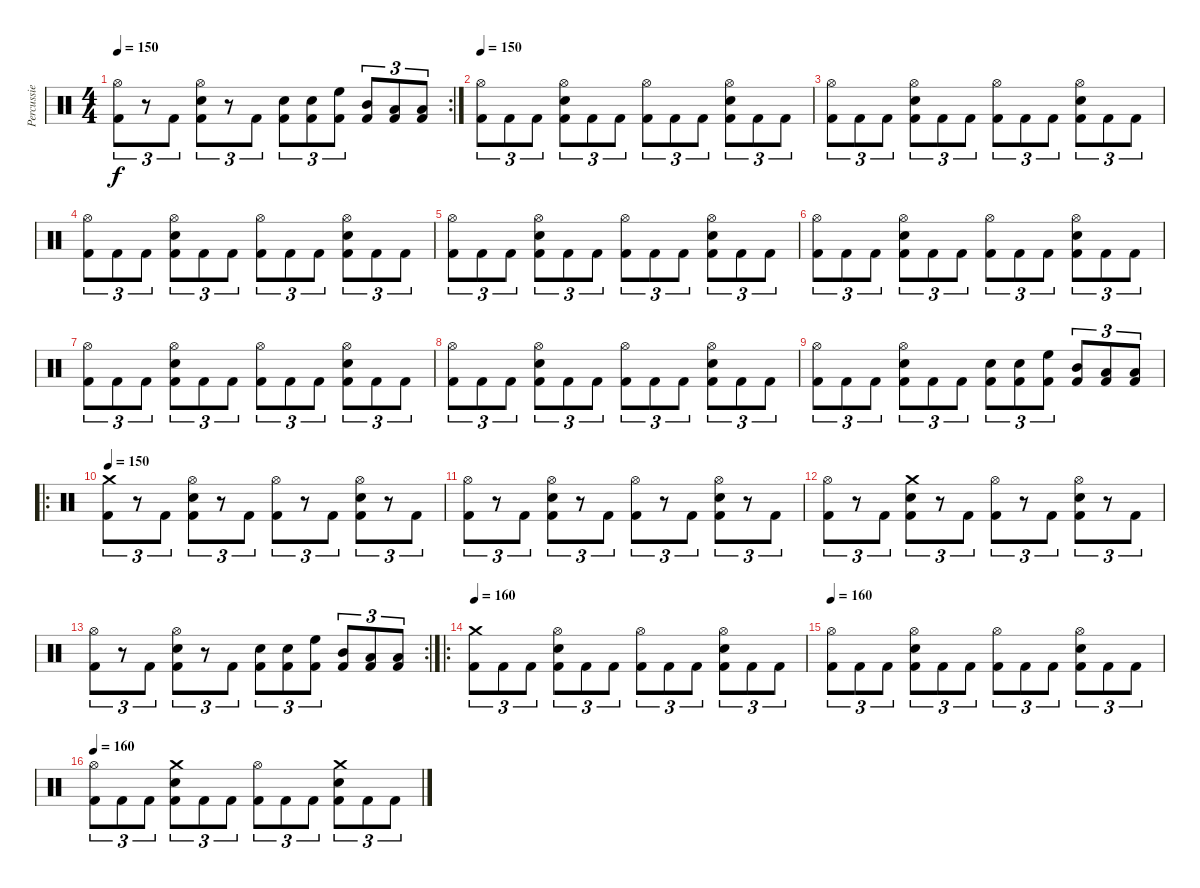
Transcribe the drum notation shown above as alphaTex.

\track ("Percussie" "Percussie") {instrument percussion}
\staff {score}
\articulation defaults
\rc 2
\ts (4 4)
\tempo 150
\clef neutral
\ks c
("Hi-Hat (open)" "Kick (hit) 2").8{tu (3 2) dy f} r.8{tu (3 2)} "Kick (hit) 2".8{tu (3 2)} ("Hi-Hat (open)" "Snare (hit) 2" "Kick (hit) 2").8{tu (3 2)} r.8{tu (3 2)} "Kick (hit) 2".8{tu (3 2)} ("Snare (hit) 2" "Kick (hit) 2").8{tu (3 2)} ("Snare (hit) 2" "Kick (hit) 2").8{tu (3 2)} ("High Floor Tom (hit)" "Kick (hit) 2").8{tu (3 2)} ("Mid Tom (hit)" "Kick (hit) 2").8{tu (3 2)} ("Low Tom (hit)" "Kick (hit) 2").8{tu (3 2)} ("Low Floor Tom (hit)" "Kick (hit) 2").8{tu (3 2)} |
\tempo 150
("Hi-Hat (open)" "Kick (hit) 2").8{tu (3 2)} "Kick (hit) 2".8{tu (3 2)} "Kick (hit) 2".8{tu (3 2)} ("Hi-Hat (open)" "Snare (hit) 2" "Kick (hit) 2").8{tu (3 2)} "Kick (hit) 2".8{tu (3 2)} "Kick (hit) 2".8{tu (3 2)} ("Hi-Hat (open)" "Kick (hit) 2").8{tu (3 2)} "Kick (hit) 2".8{tu (3 2)} "Kick (hit) 2".8{tu (3 2)} ("Hi-Hat (open)" "Snare (hit) 2" "Kick (hit) 2").8{tu (3 2)} "Kick (hit) 2".8{tu (3 2)} "Kick (hit) 2".8{tu (3 2)} |
("Hi-Hat (open)" "Kick (hit) 2").8{tu (3 2)} "Kick (hit) 2".8{tu (3 2)} "Kick (hit) 2".8{tu (3 2)} ("Hi-Hat (open)" "Snare (hit) 2" "Kick (hit) 2").8{tu (3 2)} "Kick (hit) 2".8{tu (3 2)} "Kick (hit) 2".8{tu (3 2)} ("Hi-Hat (open)" "Kick (hit) 2").8{tu (3 2)} "Kick (hit) 2".8{tu (3 2)} "Kick (hit) 2".8{tu (3 2)} ("Hi-Hat (open)" "Snare (hit) 2" "Kick (hit) 2").8{tu (3 2)} "Kick (hit) 2".8{tu (3 2)} "Kick (hit) 2".8{tu (3 2)} |
("Hi-Hat (open)" "Kick (hit) 2").8{tu (3 2)} "Kick (hit) 2".8{tu (3 2)} "Kick (hit) 2".8{tu (3 2)} ("Hi-Hat (open)" "Snare (hit) 2" "Kick (hit) 2").8{tu (3 2)} "Kick (hit) 2".8{tu (3 2)} "Kick (hit) 2".8{tu (3 2)} ("Hi-Hat (open)" "Kick (hit) 2").8{tu (3 2)} "Kick (hit) 2".8{tu (3 2)} "Kick (hit) 2".8{tu (3 2)} ("Hi-Hat (open)" "Snare (hit) 2" "Kick (hit) 2").8{tu (3 2)} "Kick (hit) 2".8{tu (3 2)} "Kick (hit) 2".8{tu (3 2)} |
("Hi-Hat (open)" "Kick (hit) 2").8{tu (3 2)} "Kick (hit) 2".8{tu (3 2)} "Kick (hit) 2".8{tu (3 2)} ("Hi-Hat (open)" "Snare (hit) 2" "Kick (hit) 2").8{tu (3 2)} "Kick (hit) 2".8{tu (3 2)} "Kick (hit) 2".8{tu (3 2)} ("Hi-Hat (open)" "Kick (hit) 2").8{tu (3 2)} "Kick (hit) 2".8{tu (3 2)} "Kick (hit) 2".8{tu (3 2)} ("Hi-Hat (open)" "Snare (hit) 2" "Kick (hit) 2").8{tu (3 2)} "Kick (hit) 2".8{tu (3 2)} "Kick (hit) 2".8{tu (3 2)} |
("Hi-Hat (open)" "Kick (hit) 2").8{tu (3 2)} "Kick (hit) 2".8{tu (3 2)} "Kick (hit) 2".8{tu (3 2)} ("Hi-Hat (open)" "Snare (hit) 2" "Kick (hit) 2").8{tu (3 2)} "Kick (hit) 2".8{tu (3 2)} "Kick (hit) 2".8{tu (3 2)} ("Hi-Hat (open)" "Kick (hit) 2").8{tu (3 2)} "Kick (hit) 2".8{tu (3 2)} "Kick (hit) 2".8{tu (3 2)} ("Hi-Hat (open)" "Snare (hit) 2" "Kick (hit) 2").8{tu (3 2)} "Kick (hit) 2".8{tu (3 2)} "Kick (hit) 2".8{tu (3 2)} |
("Hi-Hat (open)" "Kick (hit) 2").8{tu (3 2)} "Kick (hit) 2".8{tu (3 2)} "Kick (hit) 2".8{tu (3 2)} ("Hi-Hat (open)" "Snare (hit) 2" "Kick (hit) 2").8{tu (3 2)} "Kick (hit) 2".8{tu (3 2)} "Kick (hit) 2".8{tu (3 2)} ("Hi-Hat (open)" "Kick (hit) 2").8{tu (3 2)} "Kick (hit) 2".8{tu (3 2)} "Kick (hit) 2".8{tu (3 2)} ("Hi-Hat (open)" "Snare (hit) 2" "Kick (hit) 2").8{tu (3 2)} "Kick (hit) 2".8{tu (3 2)} "Kick (hit) 2".8{tu (3 2)} |
("Hi-Hat (open)" "Kick (hit) 2").8{tu (3 2)} "Kick (hit) 2".8{tu (3 2)} "Kick (hit) 2".8{tu (3 2)} ("Hi-Hat (open)" "Snare (hit) 2" "Kick (hit) 2").8{tu (3 2)} "Kick (hit) 2".8{tu (3 2)} "Kick (hit) 2".8{tu (3 2)} ("Hi-Hat (open)" "Kick (hit) 2").8{tu (3 2)} "Kick (hit) 2".8{tu (3 2)} "Kick (hit) 2".8{tu (3 2)} ("Hi-Hat (open)" "Snare (hit) 2" "Kick (hit) 2").8{tu (3 2)} "Kick (hit) 2".8{tu (3 2)} "Kick (hit) 2".8{tu (3 2)} |
("Hi-Hat (open)" "Kick (hit) 2").8{tu (3 2)} "Kick (hit) 2".8{tu (3 2)} "Kick (hit) 2".8{tu (3 2)} ("Hi-Hat (open)" "Snare (hit) 2" "Kick (hit) 2").8{tu (3 2)} "Kick (hit) 2".8{tu (3 2)} "Kick (hit) 2".8{tu (3 2)} ("Snare (hit) 2" "Kick (hit) 2").8{tu (3 2)} ("Snare (hit) 2" "Kick (hit) 2").8{tu (3 2)} ("High Floor Tom (hit)" "Kick (hit) 2").8{tu (3 2)} ("Mid Tom (hit)" "Kick (hit) 2").8{tu (3 2)} ("Low Tom (hit)" "Kick (hit) 2").8{tu (3 2)} ("Low Floor Tom (hit)" "Kick (hit) 2").8{tu (3 2)} |
\ro
\tempo 150
("Crash medium (hit)" "Kick (hit) 2").8{tu (3 2)} r.8{tu (3 2)} "Kick (hit) 2".8{tu (3 2)} ("Hi-Hat (open)" "Snare (hit) 2" "Kick (hit) 2").8{tu (3 2)} r.8{tu (3 2)} "Kick (hit) 2".8{tu (3 2)} ("Hi-Hat (open)" "Kick (hit) 2").8{tu (3 2)} r.8{tu (3 2)} "Kick (hit) 2".8{tu (3 2)} ("Hi-Hat (open)" "Snare (hit) 2" "Kick (hit) 2").8{tu (3 2)} r.8{tu (3 2)} "Kick (hit) 2".8{tu (3 2)} |
("Hi-Hat (open)" "Kick (hit) 2").8{tu (3 2)} r.8{tu (3 2)} "Kick (hit) 2".8{tu (3 2)} ("Hi-Hat (open)" "Snare (hit) 2" "Kick (hit) 2").8{tu (3 2)} r.8{tu (3 2)} "Kick (hit) 2".8{tu (3 2)} ("Hi-Hat (open)" "Kick (hit) 2").8{tu (3 2)} r.8{tu (3 2)} "Kick (hit) 2".8{tu (3 2)} ("Hi-Hat (open)" "Snare (hit) 2" "Kick (hit) 2").8{tu (3 2)} r.8{tu (3 2)} "Kick (hit) 2".8{tu (3 2)} |
("Hi-Hat (open)" "Kick (hit) 2").8{tu (3 2)} r.8{tu (3 2)} "Kick (hit) 2".8{tu (3 2)} ("Crash medium (hit)" "Snare (hit) 2" "Kick (hit) 2").8{tu (3 2)} r.8{tu (3 2)} "Kick (hit) 2".8{tu (3 2)} ("Hi-Hat (open)" "Kick (hit) 2").8{tu (3 2)} r.8{tu (3 2)} "Kick (hit) 2".8{tu (3 2)} ("Hi-Hat (open)" "Snare (hit) 2" "Kick (hit) 2").8{tu (3 2)} r.8{tu (3 2)} "Kick (hit) 2".8{tu (3 2)} |
\rc 2
("Hi-Hat (open)" "Kick (hit) 2").8{tu (3 2)} r.8{tu (3 2)} "Kick (hit) 2".8{tu (3 2)} ("Hi-Hat (open)" "Snare (hit) 2" "Kick (hit) 2").8{tu (3 2)} r.8{tu (3 2)} "Kick (hit) 2".8{tu (3 2)} ("Snare (hit) 2" "Kick (hit) 2").8{tu (3 2)} ("Snare (hit) 2" "Kick (hit) 2").8{tu (3 2)} ("High Floor Tom (hit)" "Kick (hit) 2").8{tu (3 2)} ("Mid Tom (hit)" "Kick (hit) 2").8{tu (3 2)} ("Low Tom (hit)" "Kick (hit) 2").8{tu (3 2)} ("Low Floor Tom (hit)" "Kick (hit) 2").8{tu (3 2)} |
\ro
\tempo 160
("Crash medium (hit)" "Kick (hit) 2").8{tu (3 2)} "Kick (hit) 2".8{tu (3 2)} "Kick (hit) 2".8{tu (3 2)} ("Hi-Hat (open)" "Snare (hit) 2" "Kick (hit) 2").8{tu (3 2)} "Kick (hit) 2".8{tu (3 2)} "Kick (hit) 2".8{tu (3 2)} ("Hi-Hat (open)" "Kick (hit) 2").8{tu (3 2)} "Kick (hit) 2".8{tu (3 2)} "Kick (hit) 2".8{tu (3 2)} ("Hi-Hat (open)" "Snare (hit) 2" "Kick (hit) 2").8{tu (3 2)} "Kick (hit) 2".8{tu (3 2)} "Kick (hit) 2".8{tu (3 2)} |
\tempo 160
("Hi-Hat (open)" "Kick (hit) 2").8{tu (3 2)} "Kick (hit) 2".8{tu (3 2)} "Kick (hit) 2".8{tu (3 2)} ("Hi-Hat (open)" "Snare (hit) 2" "Kick (hit) 2").8{tu (3 2)} "Kick (hit) 2".8{tu (3 2)} "Kick (hit) 2".8{tu (3 2)} ("Hi-Hat (open)" "Kick (hit) 2").8{tu (3 2)} "Kick (hit) 2".8{tu (3 2)} "Kick (hit) 2".8{tu (3 2)} ("Hi-Hat (open)" "Snare (hit) 2" "Kick (hit) 2").8{tu (3 2)} "Kick (hit) 2".8{tu (3 2)} "Kick (hit) 2".8{tu (3 2)} |
\tempo 160
("Hi-Hat (open)" "Kick (hit) 2").8{tu (3 2)} "Kick (hit) 2".8{tu (3 2)} "Kick (hit) 2".8{tu (3 2)} ("Crash medium (hit)" "Snare (hit) 2" "Kick (hit) 2").8{tu (3 2)} "Kick (hit) 2".8{tu (3 2)} "Kick (hit) 2".8{tu (3 2)} ("Hi-Hat (open)" "Kick (hit) 2").8{tu (3 2)} "Kick (hit) 2".8{tu (3 2)} "Kick (hit) 2".8{tu (3 2)} ("Crash medium (hit)" "Snare (hit) 2" "Kick (hit) 2").8{tu (3 2)} "Kick (hit) 2".8{tu (3 2)} "Kick (hit) 2".8{tu (3 2)}
